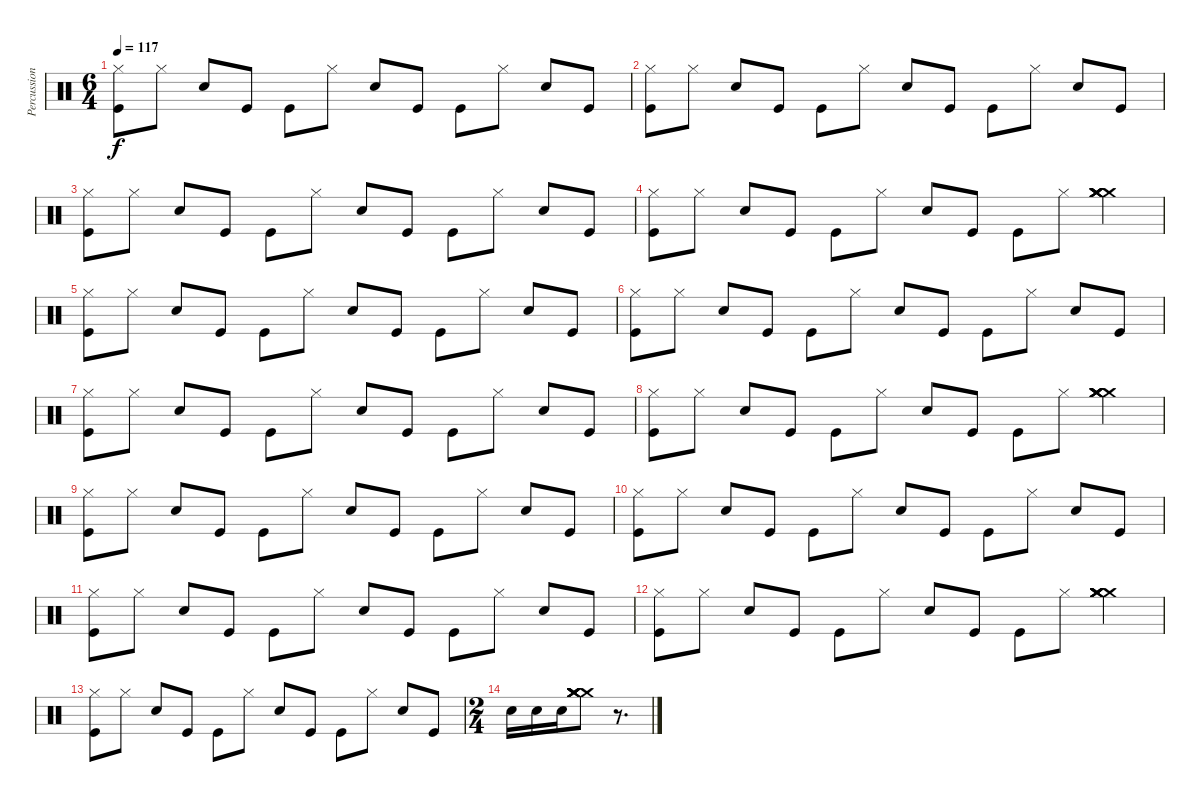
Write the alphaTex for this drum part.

\track ("Percussions" "Percussion") {instrument percussion}
\staff {score}
\articulation defaults
\ts (6 4)
\tempo 117
\clef neutral
\ks c
("Kick (hit)" "Hi-Hat (closed)").8{dy f} "Hi-Hat (closed)".8 "Snare (hit) 2".8 "Kick (hit)".8 "Kick (hit)".8 "Hi-Hat (closed)".8 "Snare (hit) 2".8 "Kick (hit)".8 "Kick (hit)".8 "Hi-Hat (closed)".8 "Snare (hit) 2".8 "Kick (hit)".8 |
("Kick (hit)" "Hi-Hat (closed)").8 "Hi-Hat (closed)".8 "Snare (hit) 2".8 "Kick (hit)".8 "Kick (hit)".8 "Hi-Hat (closed)".8 "Snare (hit) 2".8 "Kick (hit)".8 "Kick (hit)".8 "Hi-Hat (closed)".8 "Snare (hit) 2".8 "Kick (hit)".8 |
("Kick (hit)" "Hi-Hat (closed)").8 "Hi-Hat (closed)".8 "Snare (hit) 2".8 "Kick (hit)".8 "Kick (hit)".8 "Hi-Hat (closed)".8 "Snare (hit) 2".8 "Kick (hit)".8 "Kick (hit)".8 "Hi-Hat (closed)".8 "Snare (hit) 2".8 "Kick (hit)".8 |
("Kick (hit)" "Hi-Hat (closed)").8 "Hi-Hat (closed)".8 "Snare (hit) 2".8 "Kick (hit)".8 "Kick (hit)".8 "Hi-Hat (closed)".8 "Snare (hit) 2".8 "Kick (hit)".8 "Kick (hit)".8 "Hi-Hat (closed)".8 ("Crash medium (hit)" "Crash medium (hit)" "Crash medium (hit)" "Crash medium (hit)" "Crash medium (hit)" "Crash medium (hit)").4 |
("Kick (hit)" "Hi-Hat (closed)").8 "Hi-Hat (closed)".8 "Snare (hit) 2".8 "Kick (hit)".8 "Kick (hit)".8 "Hi-Hat (closed)".8 "Snare (hit) 2".8 "Kick (hit)".8 "Kick (hit)".8 "Hi-Hat (closed)".8 "Snare (hit) 2".8 "Kick (hit)".8 |
("Kick (hit)" "Hi-Hat (closed)").8 "Hi-Hat (closed)".8 "Snare (hit) 2".8 "Kick (hit)".8 "Kick (hit)".8 "Hi-Hat (closed)".8 "Snare (hit) 2".8 "Kick (hit)".8 "Kick (hit)".8 "Hi-Hat (closed)".8 "Snare (hit) 2".8 "Kick (hit)".8 |
("Kick (hit)" "Hi-Hat (closed)").8 "Hi-Hat (closed)".8 "Snare (hit) 2".8 "Kick (hit)".8 "Kick (hit)".8 "Hi-Hat (closed)".8 "Snare (hit) 2".8 "Kick (hit)".8 "Kick (hit)".8 "Hi-Hat (closed)".8 "Snare (hit) 2".8 "Kick (hit)".8 |
("Kick (hit)" "Hi-Hat (closed)").8 "Hi-Hat (closed)".8 "Snare (hit) 2".8 "Kick (hit)".8 "Kick (hit)".8 "Hi-Hat (closed)".8 "Snare (hit) 2".8 "Kick (hit)".8 "Kick (hit)".8 "Hi-Hat (closed)".8 ("Crash medium (hit)" "Crash medium (hit)" "Crash medium (hit)" "Crash medium (hit)" "Crash medium (hit)" "Crash medium (hit)").4 |
("Kick (hit)" "Hi-Hat (closed)").8 "Hi-Hat (closed)".8 "Snare (hit) 2".8 "Kick (hit)".8 "Kick (hit)".8 "Hi-Hat (closed)".8 "Snare (hit) 2".8 "Kick (hit)".8 "Kick (hit)".8 "Hi-Hat (closed)".8 "Snare (hit) 2".8 "Kick (hit)".8 |
("Kick (hit)" "Hi-Hat (closed)").8 "Hi-Hat (closed)".8 "Snare (hit) 2".8 "Kick (hit)".8 "Kick (hit)".8 "Hi-Hat (closed)".8 "Snare (hit) 2".8 "Kick (hit)".8 "Kick (hit)".8 "Hi-Hat (closed)".8 "Snare (hit) 2".8 "Kick (hit)".8 |
("Kick (hit)" "Hi-Hat (closed)").8 "Hi-Hat (closed)".8 "Snare (hit) 2".8 "Kick (hit)".8 "Kick (hit)".8 "Hi-Hat (closed)".8 "Snare (hit) 2".8 "Kick (hit)".8 "Kick (hit)".8 "Hi-Hat (closed)".8 "Snare (hit) 2".8 "Kick (hit)".8 |
("Kick (hit)" "Hi-Hat (closed)").8 "Hi-Hat (closed)".8 "Snare (hit) 2".8 "Kick (hit)".8 "Kick (hit)".8 "Hi-Hat (closed)".8 "Snare (hit) 2".8 "Kick (hit)".8 "Kick (hit)".8 "Hi-Hat (closed)".8 ("Crash medium (hit)" "Crash medium (hit)" "Crash medium (hit)" "Crash medium (hit)" "Crash medium (hit)" "Crash medium (hit)").4 |
("Kick (hit)" "Hi-Hat (closed)").8 "Hi-Hat (closed)".8 "Snare (hit) 2".8 "Kick (hit)".8 "Kick (hit)".8 "Hi-Hat (closed)".8 "Snare (hit) 2".8 "Kick (hit)".8 "Kick (hit)".8 "Hi-Hat (closed)".8 "Snare (hit) 2".8 "Kick (hit)".8 |
\ts (2 4)
"Snare (hit) 2".16 "Snare (hit) 2".16 "Snare (hit) 2".16 ("Crash medium (hit)" "Crash medium (hit)" "Crash medium (hit)" "Crash medium (hit)" "Crash medium (hit)" "Crash medium (hit)").8 r.8{d}
